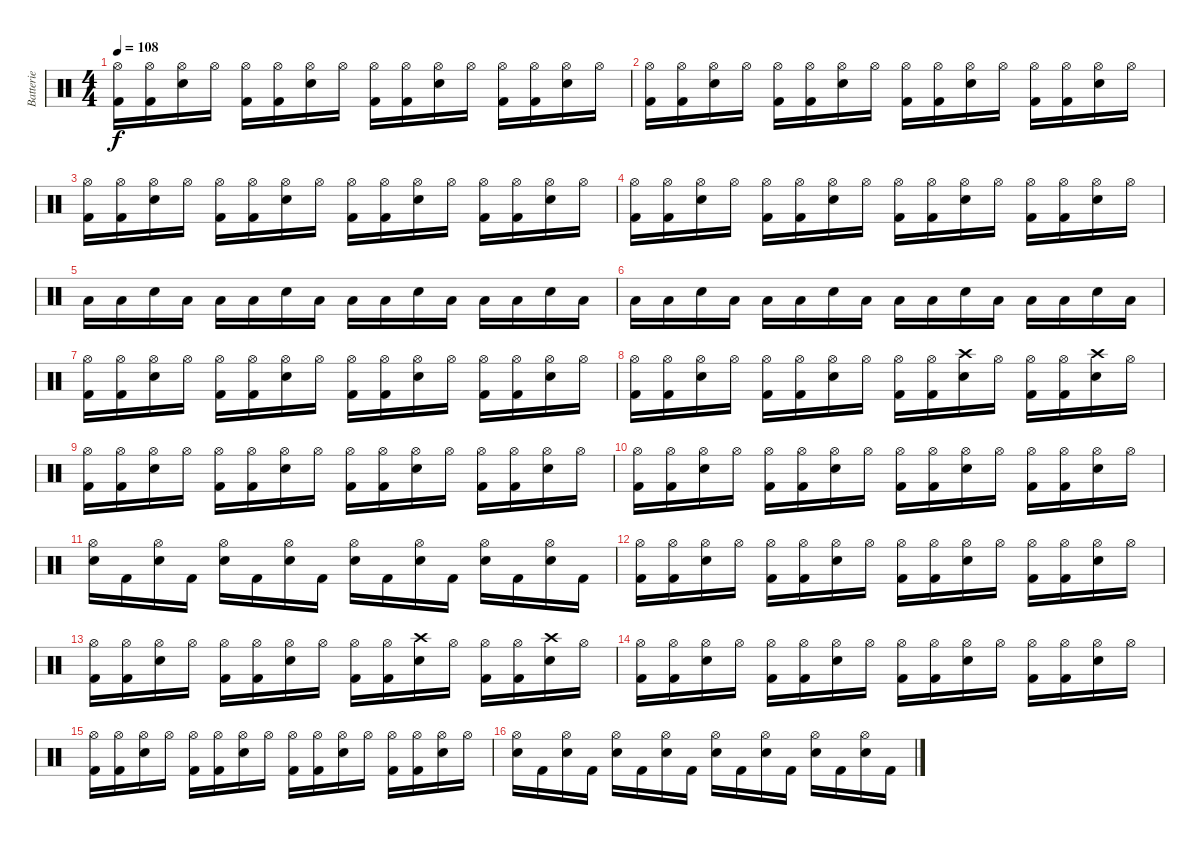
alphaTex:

\track ("Batterie" "Batterie") {instrument percussion}
\staff {score}
\articulation defaults
\ts (4 4)
\tempo 108
\clef neutral
\ks c
("Kick (hit) 2" "Hi-Hat (open)").16{dy f} ("Kick (hit) 2" "Hi-Hat (open)").16 ("Electric Snare (hit)" "Hi-Hat (open)").16 "Hi-Hat (open)".16 ("Kick (hit) 2" "Hi-Hat (open)").16 ("Kick (hit) 2" "Hi-Hat (open)").16 ("Electric Snare (hit)" "Hi-Hat (open)").16 "Hi-Hat (open)".16 ("Kick (hit) 2" "Hi-Hat (open)").16 ("Kick (hit) 2" "Hi-Hat (open)").16 ("Electric Snare (hit)" "Hi-Hat (open)").16 "Hi-Hat (open)".16 ("Kick (hit) 2" "Hi-Hat (open)").16 ("Kick (hit) 2" "Hi-Hat (open)").16 ("Electric Snare (hit)" "Hi-Hat (open)").16 "Hi-Hat (open)".16 |
("Kick (hit) 2" "Hi-Hat (open)").16 ("Kick (hit) 2" "Hi-Hat (open)").16 ("Electric Snare (hit)" "Hi-Hat (open)").16 "Hi-Hat (open)".16 ("Kick (hit) 2" "Hi-Hat (open)").16 ("Kick (hit) 2" "Hi-Hat (open)").16 ("Electric Snare (hit)" "Hi-Hat (open)").16 "Hi-Hat (open)".16 ("Kick (hit) 2" "Hi-Hat (open)").16 ("Kick (hit) 2" "Hi-Hat (open)").16 ("Electric Snare (hit)" "Hi-Hat (open)").16 "Hi-Hat (open)".16 ("Kick (hit) 2" "Hi-Hat (open)").16 ("Kick (hit) 2" "Hi-Hat (open)").16 ("Electric Snare (hit)" "Hi-Hat (open)").16 "Hi-Hat (open)".16 |
("Kick (hit) 2" "Hi-Hat (open)").16 ("Kick (hit) 2" "Hi-Hat (open)").16 ("Electric Snare (hit)" "Hi-Hat (open)").16 "Hi-Hat (open)".16 ("Kick (hit) 2" "Hi-Hat (open)").16 ("Kick (hit) 2" "Hi-Hat (open)").16 ("Electric Snare (hit)" "Hi-Hat (open)").16 "Hi-Hat (open)".16 ("Kick (hit) 2" "Hi-Hat (open)").16 ("Kick (hit) 2" "Hi-Hat (open)").16 ("Electric Snare (hit)" "Hi-Hat (open)").16 "Hi-Hat (open)".16 ("Kick (hit) 2" "Hi-Hat (open)").16 ("Kick (hit) 2" "Hi-Hat (open)").16 ("Electric Snare (hit)" "Hi-Hat (open)").16 "Hi-Hat (open)".16 |
("Kick (hit) 2" "Hi-Hat (open)").16 ("Kick (hit) 2" "Hi-Hat (open)").16 ("Electric Snare (hit)" "Hi-Hat (open)").16 "Hi-Hat (open)".16 ("Kick (hit) 2" "Hi-Hat (open)").16 ("Kick (hit) 2" "Hi-Hat (open)").16 ("Electric Snare (hit)" "Hi-Hat (open)").16 "Hi-Hat (open)".16 ("Kick (hit) 2" "Hi-Hat (open)").16 ("Kick (hit) 2" "Hi-Hat (open)").16 ("Electric Snare (hit)" "Hi-Hat (open)").16 "Hi-Hat (open)".16 ("Kick (hit) 2" "Hi-Hat (open)").16 ("Kick (hit) 2" "Hi-Hat (open)").16 ("Electric Snare (hit)" "Hi-Hat (open)").16 "Hi-Hat (open)".16 |
"Low Floor Tom (hit)".16 "Low Floor Tom (hit)".16 "Electric Snare (hit)".16 "Low Floor Tom (hit)".16 "Low Floor Tom (hit)".16 "Low Floor Tom (hit)".16 "Electric Snare (hit)".16 "Low Floor Tom (hit)".16 "Low Floor Tom (hit)".16 "Low Floor Tom (hit)".16 "Electric Snare (hit)".16 "Low Floor Tom (hit)".16 "Low Floor Tom (hit)".16 "Low Floor Tom (hit)".16 "Electric Snare (hit)".16 "Low Floor Tom (hit)".16 |
"Low Floor Tom (hit)".16 "Low Floor Tom (hit)".16 "Electric Snare (hit)".16 "Low Floor Tom (hit)".16 "Low Floor Tom (hit)".16 "Low Floor Tom (hit)".16 "Electric Snare (hit)".16 "Low Floor Tom (hit)".16 "Low Floor Tom (hit)".16 "Low Floor Tom (hit)".16 "Electric Snare (hit)".16 "Low Floor Tom (hit)".16 "Low Floor Tom (hit)".16 "Low Floor Tom (hit)".16 "Electric Snare (hit)".16 "Low Floor Tom (hit)".16 |
("Kick (hit) 2" "Hi-Hat (open)").16 ("Kick (hit) 2" "Hi-Hat (open)").16 ("Electric Snare (hit)" "Hi-Hat (open)").16 "Hi-Hat (open)".16 ("Kick (hit) 2" "Hi-Hat (open)").16 ("Kick (hit) 2" "Hi-Hat (open)").16 ("Electric Snare (hit)" "Hi-Hat (open)").16 "Hi-Hat (open)".16 ("Kick (hit) 2" "Hi-Hat (open)").16 ("Kick (hit) 2" "Hi-Hat (open)").16 ("Electric Snare (hit)" "Hi-Hat (open)").16 "Hi-Hat (open)".16 ("Kick (hit) 2" "Hi-Hat (open)").16 ("Kick (hit) 2" "Hi-Hat (open)").16 ("Electric Snare (hit)" "Hi-Hat (open)").16 "Hi-Hat (open)".16 |
("Kick (hit) 2" "Hi-Hat (open)").16 ("Kick (hit) 2" "Hi-Hat (open)").16 ("Electric Snare (hit)" "Hi-Hat (open)").16 "Hi-Hat (open)".16 ("Kick (hit) 2" "Hi-Hat (open)").16 ("Kick (hit) 2" "Hi-Hat (open)").16 ("Electric Snare (hit)" "Hi-Hat (open)").16 "Hi-Hat (open)".16 ("Kick (hit) 2" "Hi-Hat (open)").16 ("Kick (hit) 2" "Hi-Hat (open)").16 ("Electric Snare (hit)" "Crash high (hit)").16 "Hi-Hat (open)".16 ("Kick (hit) 2" "Hi-Hat (open)").16 ("Kick (hit) 2" "Hi-Hat (open)").16 ("Electric Snare (hit)" "Crash high (hit)").16 "Hi-Hat (open)".16 |
("Kick (hit) 2" "Hi-Hat (open)").16 ("Kick (hit) 2" "Hi-Hat (open)").16 ("Electric Snare (hit)" "Hi-Hat (open)").16 "Hi-Hat (open)".16 ("Kick (hit) 2" "Hi-Hat (open)").16 ("Kick (hit) 2" "Hi-Hat (open)").16 ("Electric Snare (hit)" "Hi-Hat (open)").16 "Hi-Hat (open)".16 ("Kick (hit) 2" "Hi-Hat (open)").16 ("Kick (hit) 2" "Hi-Hat (open)").16 ("Electric Snare (hit)" "Hi-Hat (open)").16 "Hi-Hat (open)".16 ("Kick (hit) 2" "Hi-Hat (open)").16 ("Kick (hit) 2" "Hi-Hat (open)").16 ("Electric Snare (hit)" "Hi-Hat (open)").16 "Hi-Hat (open)".16 |
("Kick (hit) 2" "Hi-Hat (open)").16 ("Kick (hit) 2" "Hi-Hat (open)").16 ("Electric Snare (hit)" "Hi-Hat (open)").16 "Hi-Hat (open)".16 ("Kick (hit) 2" "Hi-Hat (open)").16 ("Kick (hit) 2" "Hi-Hat (open)").16 ("Electric Snare (hit)" "Hi-Hat (open)").16 "Hi-Hat (open)".16 ("Kick (hit) 2" "Hi-Hat (open)").16 ("Kick (hit) 2" "Hi-Hat (open)").16 ("Electric Snare (hit)" "Hi-Hat (open)").16 "Hi-Hat (open)".16 ("Kick (hit) 2" "Hi-Hat (open)").16 ("Kick (hit) 2" "Hi-Hat (open)").16 ("Electric Snare (hit)" "Hi-Hat (open)").16 "Hi-Hat (open)".16 |
("Electric Snare (hit)" "Hi-Hat (open)").16 "Kick (hit) 2".16 ("Electric Snare (hit)" "Hi-Hat (open)").16 "Kick (hit) 2".16 ("Electric Snare (hit)" "Hi-Hat (open)").16 "Kick (hit) 2".16 ("Electric Snare (hit)" "Hi-Hat (open)").16 "Kick (hit) 2".16 ("Electric Snare (hit)" "Hi-Hat (open)").16 "Kick (hit) 2".16 ("Electric Snare (hit)" "Hi-Hat (open)").16 "Kick (hit) 2".16 ("Electric Snare (hit)" "Hi-Hat (open)").16 "Kick (hit) 2".16 ("Electric Snare (hit)" "Hi-Hat (open)").16 "Kick (hit) 2".16 |
("Kick (hit) 2" "Hi-Hat (open)").16 ("Kick (hit) 2" "Hi-Hat (open)").16 ("Electric Snare (hit)" "Hi-Hat (open)").16 "Hi-Hat (open)".16 ("Kick (hit) 2" "Hi-Hat (open)").16 ("Kick (hit) 2" "Hi-Hat (open)").16 ("Electric Snare (hit)" "Hi-Hat (open)").16 "Hi-Hat (open)".16 ("Kick (hit) 2" "Hi-Hat (open)").16 ("Kick (hit) 2" "Hi-Hat (open)").16 ("Electric Snare (hit)" "Hi-Hat (open)").16 "Hi-Hat (open)".16 ("Kick (hit) 2" "Hi-Hat (open)").16 ("Kick (hit) 2" "Hi-Hat (open)").16 ("Electric Snare (hit)" "Hi-Hat (open)").16 "Hi-Hat (open)".16 |
("Kick (hit) 2" "Hi-Hat (open)").16 ("Kick (hit) 2" "Hi-Hat (open)").16 ("Electric Snare (hit)" "Hi-Hat (open)").16 "Hi-Hat (open)".16 ("Kick (hit) 2" "Hi-Hat (open)").16 ("Kick (hit) 2" "Hi-Hat (open)").16 ("Electric Snare (hit)" "Hi-Hat (open)").16 "Hi-Hat (open)".16 ("Kick (hit) 2" "Hi-Hat (open)").16 ("Kick (hit) 2" "Hi-Hat (open)").16 ("Electric Snare (hit)" "Crash high (hit)").16 "Hi-Hat (open)".16 ("Kick (hit) 2" "Hi-Hat (open)").16 ("Kick (hit) 2" "Hi-Hat (open)").16 ("Electric Snare (hit)" "Crash high (hit)").16 "Hi-Hat (open)".16 |
("Kick (hit) 2" "Hi-Hat (open)").16 ("Kick (hit) 2" "Hi-Hat (open)").16 ("Electric Snare (hit)" "Hi-Hat (open)").16 "Hi-Hat (open)".16 ("Kick (hit) 2" "Hi-Hat (open)").16 ("Kick (hit) 2" "Hi-Hat (open)").16 ("Electric Snare (hit)" "Hi-Hat (open)").16 "Hi-Hat (open)".16 ("Kick (hit) 2" "Hi-Hat (open)").16 ("Kick (hit) 2" "Hi-Hat (open)").16 ("Electric Snare (hit)" "Hi-Hat (open)").16 "Hi-Hat (open)".16 ("Kick (hit) 2" "Hi-Hat (open)").16 ("Kick (hit) 2" "Hi-Hat (open)").16 ("Electric Snare (hit)" "Hi-Hat (open)").16 "Hi-Hat (open)".16 |
("Kick (hit) 2" "Hi-Hat (open)").16 ("Kick (hit) 2" "Hi-Hat (open)").16 ("Electric Snare (hit)" "Hi-Hat (open)").16 "Hi-Hat (open)".16 ("Kick (hit) 2" "Hi-Hat (open)").16 ("Kick (hit) 2" "Hi-Hat (open)").16 ("Electric Snare (hit)" "Hi-Hat (open)").16 "Hi-Hat (open)".16 ("Kick (hit) 2" "Hi-Hat (open)").16 ("Kick (hit) 2" "Hi-Hat (open)").16 ("Electric Snare (hit)" "Hi-Hat (open)").16 "Hi-Hat (open)".16 ("Kick (hit) 2" "Hi-Hat (open)").16 ("Kick (hit) 2" "Hi-Hat (open)").16 ("Electric Snare (hit)" "Hi-Hat (open)").16 "Hi-Hat (open)".16 |
("Electric Snare (hit)" "Hi-Hat (open)").16 "Kick (hit) 2".16 ("Electric Snare (hit)" "Hi-Hat (open)").16 "Kick (hit) 2".16 ("Electric Snare (hit)" "Hi-Hat (open)").16 "Kick (hit) 2".16 ("Electric Snare (hit)" "Hi-Hat (open)").16 "Kick (hit) 2".16 ("Electric Snare (hit)" "Hi-Hat (open)").16 "Kick (hit) 2".16 ("Electric Snare (hit)" "Hi-Hat (open)").16 "Kick (hit) 2".16 ("Electric Snare (hit)" "Hi-Hat (open)").16 "Kick (hit) 2".16 ("Electric Snare (hit)" "Hi-Hat (open)").16 "Kick (hit) 2".16
